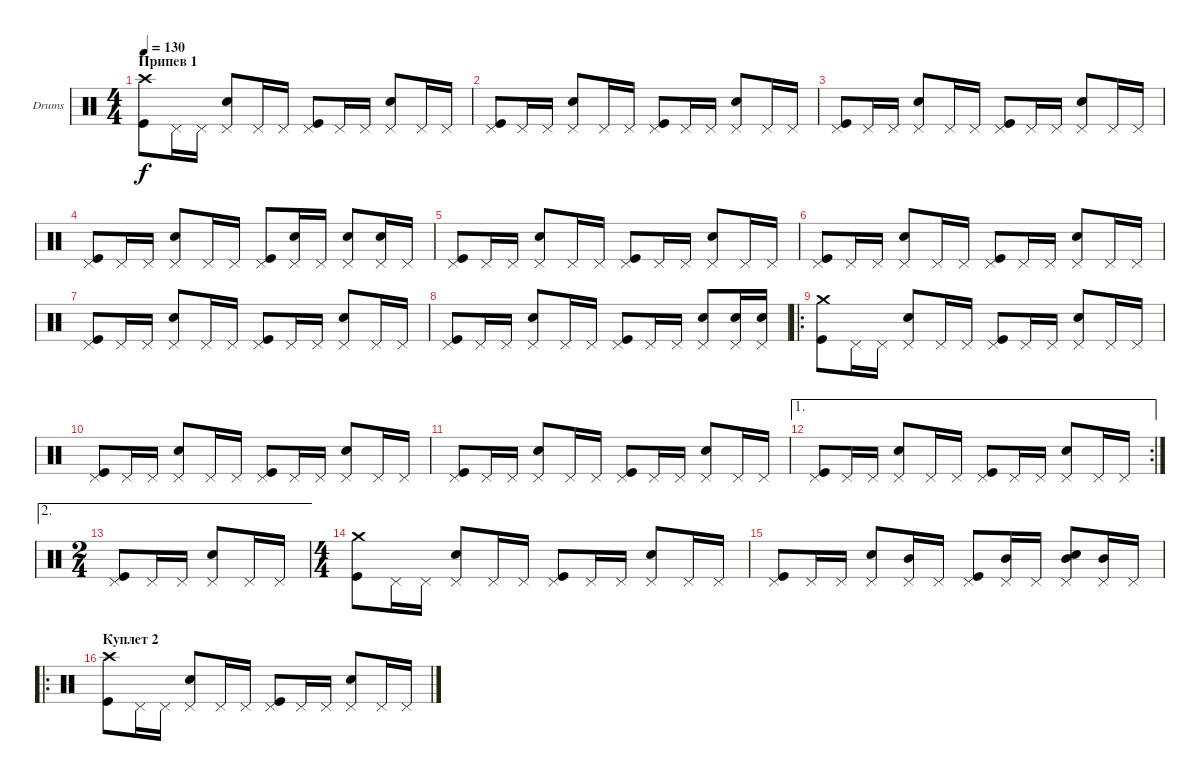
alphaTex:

\bracketExtendMode groupsimilarinstruments
\firstSystemTrackNameOrientation horizontal
\otherSystemsTrackNameOrientation horizontal
\track ("Drumkit" "Drums") {instrument percussion}
\staff {score}
\articulation defaults
\ts (4 4)
\section ("" "Припев 1")
\tempo 130
\clef neutral
\ks c
("Crash high (hit)" "Kick (hit)").8{dy f} "Pedal Hi-Hat (hit)".16 "Pedal Hi-Hat (hit)".16 ("Pedal Hi-Hat (hit)" "Snare (hit) 2").8 "Pedal Hi-Hat (hit)".16 "Pedal Hi-Hat (hit)".16 ("Pedal Hi-Hat (hit)" "Kick (hit)").8 "Pedal Hi-Hat (hit)".16 "Pedal Hi-Hat (hit)".16 ("Pedal Hi-Hat (hit)" "Snare (hit) 2").8 "Pedal Hi-Hat (hit)".16 "Pedal Hi-Hat (hit)".16 |
("Pedal Hi-Hat (hit)" "Kick (hit)").8 "Pedal Hi-Hat (hit)".16 "Pedal Hi-Hat (hit)".16 ("Pedal Hi-Hat (hit)" "Snare (hit) 2").8 "Pedal Hi-Hat (hit)".16 "Pedal Hi-Hat (hit)".16 ("Pedal Hi-Hat (hit)" "Kick (hit)").8 "Pedal Hi-Hat (hit)".16 "Pedal Hi-Hat (hit)".16 ("Pedal Hi-Hat (hit)" "Snare (hit) 2").8 "Pedal Hi-Hat (hit)".16 "Pedal Hi-Hat (hit)".16 |
("Pedal Hi-Hat (hit)" "Kick (hit)").8 "Pedal Hi-Hat (hit)".16 "Pedal Hi-Hat (hit)".16 ("Pedal Hi-Hat (hit)" "Snare (hit) 2").8 "Pedal Hi-Hat (hit)".16 "Pedal Hi-Hat (hit)".16 ("Pedal Hi-Hat (hit)" "Kick (hit)").8 "Pedal Hi-Hat (hit)".16 "Pedal Hi-Hat (hit)".16 ("Pedal Hi-Hat (hit)" "Snare (hit) 2").8 "Pedal Hi-Hat (hit)".16 "Pedal Hi-Hat (hit)".16 |
("Pedal Hi-Hat (hit)" "Kick (hit)").8 "Pedal Hi-Hat (hit)".16 "Pedal Hi-Hat (hit)".16 ("Pedal Hi-Hat (hit)" "Snare (hit) 2").8 "Pedal Hi-Hat (hit)".16 "Pedal Hi-Hat (hit)".16 ("Pedal Hi-Hat (hit)" "Kick (hit)").8 ("Pedal Hi-Hat (hit)" "Snare (hit) 2").16 "Pedal Hi-Hat (hit)".16 ("Pedal Hi-Hat (hit)" "Snare (hit) 2").8 ("Pedal Hi-Hat (hit)" "Snare (hit) 2").16 "Pedal Hi-Hat (hit)".16 |
("Pedal Hi-Hat (hit)" "Kick (hit)").8 "Pedal Hi-Hat (hit)".16 "Pedal Hi-Hat (hit)".16 ("Pedal Hi-Hat (hit)" "Snare (hit) 2").8 "Pedal Hi-Hat (hit)".16 "Pedal Hi-Hat (hit)".16 ("Pedal Hi-Hat (hit)" "Kick (hit)").8 "Pedal Hi-Hat (hit)".16 "Pedal Hi-Hat (hit)".16 ("Pedal Hi-Hat (hit)" "Snare (hit) 2").8 "Pedal Hi-Hat (hit)".16 "Pedal Hi-Hat (hit)".16 |
("Pedal Hi-Hat (hit)" "Kick (hit)").8 "Pedal Hi-Hat (hit)".16 "Pedal Hi-Hat (hit)".16 ("Pedal Hi-Hat (hit)" "Snare (hit) 2").8 "Pedal Hi-Hat (hit)".16 "Pedal Hi-Hat (hit)".16 ("Pedal Hi-Hat (hit)" "Kick (hit)").8 "Pedal Hi-Hat (hit)".16 "Pedal Hi-Hat (hit)".16 ("Pedal Hi-Hat (hit)" "Snare (hit) 2").8 "Pedal Hi-Hat (hit)".16 "Pedal Hi-Hat (hit)".16 |
("Pedal Hi-Hat (hit)" "Kick (hit)").8 "Pedal Hi-Hat (hit)".16 "Pedal Hi-Hat (hit)".16 ("Pedal Hi-Hat (hit)" "Snare (hit) 2").8 "Pedal Hi-Hat (hit)".16 "Pedal Hi-Hat (hit)".16 ("Pedal Hi-Hat (hit)" "Kick (hit)").8 "Pedal Hi-Hat (hit)".16 "Pedal Hi-Hat (hit)".16 ("Pedal Hi-Hat (hit)" "Snare (hit) 2").8 "Pedal Hi-Hat (hit)".16 "Pedal Hi-Hat (hit)".16 |
("Pedal Hi-Hat (hit)" "Kick (hit)").8 "Pedal Hi-Hat (hit)".16 "Pedal Hi-Hat (hit)".16 ("Pedal Hi-Hat (hit)" "Snare (hit) 2").8 "Pedal Hi-Hat (hit)".16 "Pedal Hi-Hat (hit)".16 ("Pedal Hi-Hat (hit)" "Kick (hit)").8 "Pedal Hi-Hat (hit)".16 "Pedal Hi-Hat (hit)".16 ("Pedal Hi-Hat (hit)" "Snare (hit) 2").8 ("Pedal Hi-Hat (hit)" "Snare (hit) 2").16 ("Pedal Hi-Hat (hit)" "Snare (hit) 2").16 |
\ro
("Crash medium (hit)" "Kick (hit)").8 "Pedal Hi-Hat (hit)".16 "Pedal Hi-Hat (hit)".16 ("Pedal Hi-Hat (hit)" "Snare (hit) 2").8 "Pedal Hi-Hat (hit)".16 "Pedal Hi-Hat (hit)".16 ("Pedal Hi-Hat (hit)" "Kick (hit)").8 "Pedal Hi-Hat (hit)".16 "Pedal Hi-Hat (hit)".16 ("Pedal Hi-Hat (hit)" "Snare (hit) 2").8 "Pedal Hi-Hat (hit)".16 "Pedal Hi-Hat (hit)".16 |
("Pedal Hi-Hat (hit)" "Kick (hit)").8 "Pedal Hi-Hat (hit)".16 "Pedal Hi-Hat (hit)".16 ("Pedal Hi-Hat (hit)" "Snare (hit) 2").8 "Pedal Hi-Hat (hit)".16 "Pedal Hi-Hat (hit)".16 ("Pedal Hi-Hat (hit)" "Kick (hit)").8 "Pedal Hi-Hat (hit)".16 "Pedal Hi-Hat (hit)".16 ("Pedal Hi-Hat (hit)" "Snare (hit) 2").8 "Pedal Hi-Hat (hit)".16 "Pedal Hi-Hat (hit)".16 |
("Pedal Hi-Hat (hit)" "Kick (hit)").8 "Pedal Hi-Hat (hit)".16 "Pedal Hi-Hat (hit)".16 ("Pedal Hi-Hat (hit)" "Snare (hit) 2").8 "Pedal Hi-Hat (hit)".16 "Pedal Hi-Hat (hit)".16 ("Pedal Hi-Hat (hit)" "Kick (hit)").8 "Pedal Hi-Hat (hit)".16 "Pedal Hi-Hat (hit)".16 ("Pedal Hi-Hat (hit)" "Snare (hit) 2").8 "Pedal Hi-Hat (hit)".16 "Pedal Hi-Hat (hit)".16 |
\ae 1
\rc 2
("Pedal Hi-Hat (hit)" "Kick (hit)").8 "Pedal Hi-Hat (hit)".16 "Pedal Hi-Hat (hit)".16 ("Pedal Hi-Hat (hit)" "Snare (hit) 2").8 "Pedal Hi-Hat (hit)".16 "Pedal Hi-Hat (hit)".16 ("Pedal Hi-Hat (hit)" "Kick (hit)").8 "Pedal Hi-Hat (hit)".16 "Pedal Hi-Hat (hit)".16 ("Pedal Hi-Hat (hit)" "Snare (hit) 2").8 "Pedal Hi-Hat (hit)".16 "Pedal Hi-Hat (hit)".16 |
\ae 2
\ts (2 4)
("Pedal Hi-Hat (hit)" "Kick (hit)").8 "Pedal Hi-Hat (hit)".16 "Pedal Hi-Hat (hit)".16 ("Pedal Hi-Hat (hit)" "Snare (hit) 2").8 "Pedal Hi-Hat (hit)".16 "Pedal Hi-Hat (hit)".16 |
\ts (4 4)
("Crash medium (hit)" "Kick (hit)").8 "Pedal Hi-Hat (hit)".16 "Pedal Hi-Hat (hit)".16 ("Pedal Hi-Hat (hit)" "Snare (hit) 2").8 "Pedal Hi-Hat (hit)".16 "Pedal Hi-Hat (hit)".16 ("Pedal Hi-Hat (hit)" "Kick (hit)").8 "Pedal Hi-Hat (hit)".16 "Pedal Hi-Hat (hit)".16 ("Pedal Hi-Hat (hit)" "Snare (hit) 2").8 "Pedal Hi-Hat (hit)".16 "Pedal Hi-Hat (hit)".16 |
("Pedal Hi-Hat (hit)" "Kick (hit)").8 "Pedal Hi-Hat (hit)".16 "Pedal Hi-Hat (hit)".16 ("Pedal Hi-Hat (hit)" "Snare (hit) 2").8 ("Pedal Hi-Hat (hit)" "Mid Tom (hit)").16 "Pedal Hi-Hat (hit)".16 ("Pedal Hi-Hat (hit)" "Kick (hit)").8 ("Pedal Hi-Hat (hit)" "Mid Tom (hit)").16 "Pedal Hi-Hat (hit)".16 ("Pedal Hi-Hat (hit)" "Snare (hit) 2" "Mid Tom (hit)").8 ("Pedal Hi-Hat (hit)" "Mid Tom (hit)").16 "Pedal Hi-Hat (hit)".16 |
\ro
\section ("" "Куплет 2")
("Crash high (hit)" "Kick (hit)").8 "Pedal Hi-Hat (hit)".16 "Pedal Hi-Hat (hit)".16 ("Pedal Hi-Hat (hit)" "Snare (hit) 2").8 "Pedal Hi-Hat (hit)".16 "Pedal Hi-Hat (hit)".16 ("Pedal Hi-Hat (hit)" "Kick (hit)").8 "Pedal Hi-Hat (hit)".16 "Pedal Hi-Hat (hit)".16 ("Pedal Hi-Hat (hit)" "Snare (hit) 2").8 "Pedal Hi-Hat (hit)".16 "Pedal Hi-Hat (hit)".16
